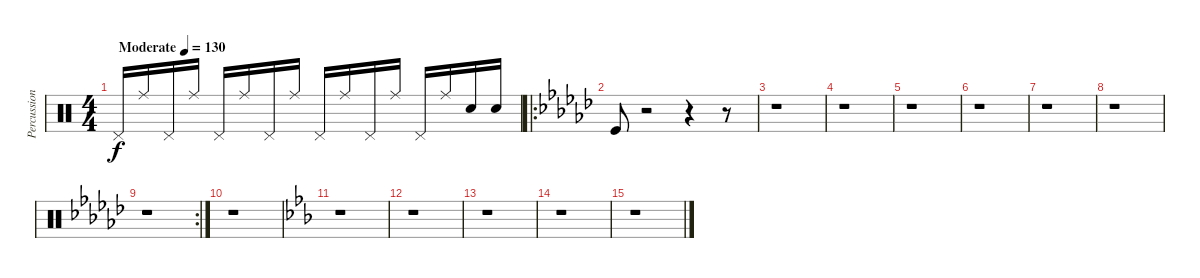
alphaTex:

\track ("Percussion Intro" "Percussion") {instrument percussion}
\staff {score}
\articulation defaults
\ts (4 4)
\tempo (130 "Moderate")
\clef neutral
\ks c "Pedal Hi-Hat (hit)".16{dy f} "Ride (middle)".16 "Pedal Hi-Hat (hit)".16 "Ride (middle)".16 "Pedal Hi-Hat (hit)".16 "Ride (middle)".16 "Pedal Hi-Hat (hit)".16 "Ride (middle)".16 "Pedal Hi-Hat (hit)".16 "Ride (middle)".16 "Pedal Hi-Hat (hit)".16 "Ride (middle)".16 "Pedal Hi-Hat (hit)".16 "Ride (middle)".16 "Electric Snare (hit)".16 "Electric Snare (hit)".16
|
\ro
\ks ebminor "Kick (hit)".8
r.2 r.4 r.8 |
r.1 |
r.1 |
r.1 |
r.1 |
r.1 |
r.1 |
\rc 2
r.1 |
r.1 |
\ks eb
r.1 |
r.1 |
r.1 |
r.1 |
r.1
